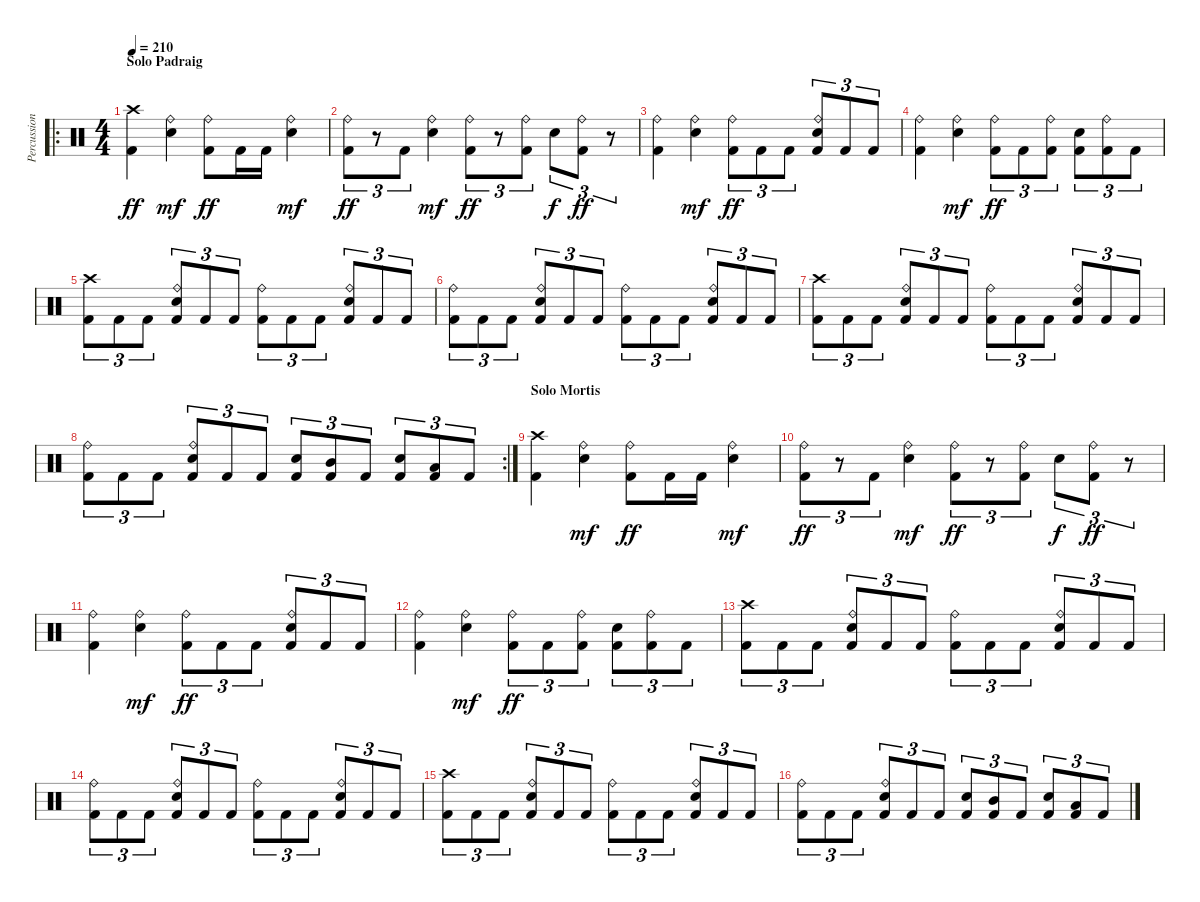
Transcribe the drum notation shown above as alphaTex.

\track ("Percussion" "Percussion") {instrument percussion}
\staff {score}
\articulation defaults
\ro
\ts (4 4)
\section ("" "Solo Padraig")
\tempo 210
\clef neutral
\ks c
("Crash high (hit)" "Kick (hit) 2").4{dy ff} ("Ride (bell)" "Snare (hit) 2").4{dy mf} ("Ride (bell)" "Kick (hit) 2").8{dy ff} "Kick (hit) 2".16 "Kick (hit) 2".16 ("Ride (bell)" "Snare (hit) 2").4{dy mf} |
("Ride (bell)" "Kick (hit) 2").8{tu (3 2) dy ff} r.8{tu (3 2)} "Kick (hit) 2".8{tu (3 2)} ("Ride (bell)" "Snare (hit) 2").4{dy mf} ("Ride (bell)" "Kick (hit) 2").8{tu (3 2) dy ff} r.8{tu (3 2)} ("Ride (bell)" "Kick (hit) 2").8{tu (3 2)} "Snare (hit) 2".8{tu (3 2) dy f} ("Ride (bell)" "Kick (hit) 2").8{tu (3 2) dy ff} r.8{tu (3 2)} |
("Ride (bell)" "Kick (hit) 2").4 ("Ride (bell)" "Snare (hit) 2").4{dy mf} ("Ride (bell)" "Kick (hit) 2").8{tu (3 2) dy ff} "Kick (hit) 2".8{tu (3 2)} "Kick (hit) 2".8{tu (3 2)} ("Ride (bell)" "Snare (hit) 2" "Kick (hit) 2").8{tu (3 2)} "Kick (hit) 2".8{tu (3 2)} "Kick (hit) 2".8{tu (3 2)} |
("Ride (bell)" "Kick (hit) 2").4 ("Ride (bell)" "Snare (hit) 2").4{dy mf} ("Ride (bell)" "Kick (hit) 2").8{tu (3 2) dy ff} "Kick (hit) 2".8{tu (3 2)} ("Ride (bell)" "Kick (hit) 2").8{tu (3 2)} ("Snare (hit) 2" "Kick (hit) 2").8{tu (3 2)} ("Ride (bell)" "Kick (hit) 2").8{tu (3 2)} "Kick (hit) 2".8{tu (3 2)} |
("Crash high (hit)" "Kick (hit) 2").8{tu (3 2)} "Kick (hit) 2".8{tu (3 2)} "Kick (hit) 2".8{tu (3 2)} ("Ride (bell)" "Snare (hit) 2" "Kick (hit) 2").8{tu (3 2)} "Kick (hit) 2".8{tu (3 2)} "Kick (hit) 2".8{tu (3 2)} ("Ride (bell)" "Kick (hit) 2").8{tu (3 2)} "Kick (hit) 2".8{tu (3 2)} "Kick (hit) 2".8{tu (3 2)} ("Ride (bell)" "Snare (hit) 2" "Kick (hit) 2").8{tu (3 2)} "Kick (hit) 2".8{tu (3 2)} "Kick (hit) 2".8{tu (3 2)} |
("Ride (bell)" "Kick (hit) 2").8{tu (3 2)} "Kick (hit) 2".8{tu (3 2)} "Kick (hit) 2".8{tu (3 2)} ("Ride (bell)" "Snare (hit) 2" "Kick (hit) 2").8{tu (3 2)} "Kick (hit) 2".8{tu (3 2)} "Kick (hit) 2".8{tu (3 2)} ("Ride (bell)" "Kick (hit) 2").8{tu (3 2)} "Kick (hit) 2".8{tu (3 2)} "Kick (hit) 2".8{tu (3 2)} ("Ride (bell)" "Snare (hit) 2" "Kick (hit) 2").8{tu (3 2)} "Kick (hit) 2".8{tu (3 2)} "Kick (hit) 2".8{tu (3 2)} |
("Crash high (hit)" "Kick (hit) 2").8{tu (3 2)} "Kick (hit) 2".8{tu (3 2)} "Kick (hit) 2".8{tu (3 2)} ("Ride (bell)" "Snare (hit) 2" "Kick (hit) 2").8{tu (3 2)} "Kick (hit) 2".8{tu (3 2)} "Kick (hit) 2".8{tu (3 2)} ("Ride (bell)" "Kick (hit) 2").8{tu (3 2)} "Kick (hit) 2".8{tu (3 2)} "Kick (hit) 2".8{tu (3 2)} ("Ride (bell)" "Snare (hit) 2" "Kick (hit) 2").8{tu (3 2)} "Kick (hit) 2".8{tu (3 2)} "Kick (hit) 2".8{tu (3 2)} |
\rc 2
("Ride (bell)" "Kick (hit) 2").8{tu (3 2)} "Kick (hit) 2".8{tu (3 2)} "Kick (hit) 2".8{tu (3 2)} ("Ride (bell)" "Snare (hit) 2" "Kick (hit) 2").8{tu (3 2)} "Kick (hit) 2".8{tu (3 2)} "Kick (hit) 2".8{tu (3 2)} ("Snare (hit) 2" "Kick (hit) 2").8{tu (3 2)} ("Mid Tom (hit)" "Kick (hit) 2").8{tu (3 2)} "Kick (hit) 2".8{tu (3 2)} ("Snare (hit) 2" "Kick (hit) 2").8{tu (3 2)} ("Low Tom (hit)" "Kick (hit) 2").8{tu (3 2)} "Kick (hit) 2".8{tu (3 2)} |
\section ("" "Solo Mortis")
("Crash high (hit)" "Kick (hit) 2").4 ("Ride (bell)" "Snare (hit) 2").4{dy mf} ("Ride (bell)" "Kick (hit) 2").8{dy ff} "Kick (hit) 2".16 "Kick (hit) 2".16 ("Ride (bell)" "Snare (hit) 2").4{dy mf} |
("Ride (bell)" "Kick (hit) 2").8{tu (3 2) dy ff} r.8{tu (3 2)} "Kick (hit) 2".8{tu (3 2)} ("Ride (bell)" "Snare (hit) 2").4{dy mf} ("Ride (bell)" "Kick (hit) 2").8{tu (3 2) dy ff} r.8{tu (3 2)} ("Ride (bell)" "Kick (hit) 2").8{tu (3 2)} "Snare (hit) 2".8{tu (3 2) dy f} ("Ride (bell)" "Kick (hit) 2").8{tu (3 2) dy ff} r.8{tu (3 2)} |
("Ride (bell)" "Kick (hit) 2").4 ("Ride (bell)" "Snare (hit) 2").4{dy mf} ("Ride (bell)" "Kick (hit) 2").8{tu (3 2) dy ff} "Kick (hit) 2".8{tu (3 2)} "Kick (hit) 2".8{tu (3 2)} ("Ride (bell)" "Snare (hit) 2" "Kick (hit) 2").8{tu (3 2)} "Kick (hit) 2".8{tu (3 2)} "Kick (hit) 2".8{tu (3 2)} |
("Ride (bell)" "Kick (hit) 2").4 ("Ride (bell)" "Snare (hit) 2").4{dy mf} ("Ride (bell)" "Kick (hit) 2").8{tu (3 2) dy ff} "Kick (hit) 2".8{tu (3 2)} ("Ride (bell)" "Kick (hit) 2").8{tu (3 2)} ("Snare (hit) 2" "Kick (hit) 2").8{tu (3 2)} ("Ride (bell)" "Kick (hit) 2").8{tu (3 2)} "Kick (hit) 2".8{tu (3 2)} |
("Crash high (hit)" "Kick (hit) 2").8{tu (3 2)} "Kick (hit) 2".8{tu (3 2)} "Kick (hit) 2".8{tu (3 2)} ("Ride (bell)" "Snare (hit) 2" "Kick (hit) 2").8{tu (3 2)} "Kick (hit) 2".8{tu (3 2)} "Kick (hit) 2".8{tu (3 2)} ("Ride (bell)" "Kick (hit) 2").8{tu (3 2)} "Kick (hit) 2".8{tu (3 2)} "Kick (hit) 2".8{tu (3 2)} ("Ride (bell)" "Snare (hit) 2" "Kick (hit) 2").8{tu (3 2)} "Kick (hit) 2".8{tu (3 2)} "Kick (hit) 2".8{tu (3 2)} |
("Ride (bell)" "Kick (hit) 2").8{tu (3 2)} "Kick (hit) 2".8{tu (3 2)} "Kick (hit) 2".8{tu (3 2)} ("Ride (bell)" "Snare (hit) 2" "Kick (hit) 2").8{tu (3 2)} "Kick (hit) 2".8{tu (3 2)} "Kick (hit) 2".8{tu (3 2)} ("Ride (bell)" "Kick (hit) 2").8{tu (3 2)} "Kick (hit) 2".8{tu (3 2)} "Kick (hit) 2".8{tu (3 2)} ("Ride (bell)" "Snare (hit) 2" "Kick (hit) 2").8{tu (3 2)} "Kick (hit) 2".8{tu (3 2)} "Kick (hit) 2".8{tu (3 2)} |
("Crash high (hit)" "Kick (hit) 2").8{tu (3 2)} "Kick (hit) 2".8{tu (3 2)} "Kick (hit) 2".8{tu (3 2)} ("Ride (bell)" "Snare (hit) 2" "Kick (hit) 2").8{tu (3 2)} "Kick (hit) 2".8{tu (3 2)} "Kick (hit) 2".8{tu (3 2)} ("Ride (bell)" "Kick (hit) 2").8{tu (3 2)} "Kick (hit) 2".8{tu (3 2)} "Kick (hit) 2".8{tu (3 2)} ("Ride (bell)" "Snare (hit) 2" "Kick (hit) 2").8{tu (3 2)} "Kick (hit) 2".8{tu (3 2)} "Kick (hit) 2".8{tu (3 2)} |
("Ride (bell)" "Kick (hit) 2").8{tu (3 2)} "Kick (hit) 2".8{tu (3 2)} "Kick (hit) 2".8{tu (3 2)} ("Ride (bell)" "Snare (hit) 2" "Kick (hit) 2").8{tu (3 2)} "Kick (hit) 2".8{tu (3 2)} "Kick (hit) 2".8{tu (3 2)} ("Snare (hit) 2" "Kick (hit) 2").8{tu (3 2)} ("Mid Tom (hit)" "Kick (hit) 2").8{tu (3 2)} "Kick (hit) 2".8{tu (3 2)} ("Snare (hit) 2" "Kick (hit) 2").8{tu (3 2)} ("Low Tom (hit)" "Kick (hit) 2").8{tu (3 2)} "Kick (hit) 2".8{tu (3 2)}
